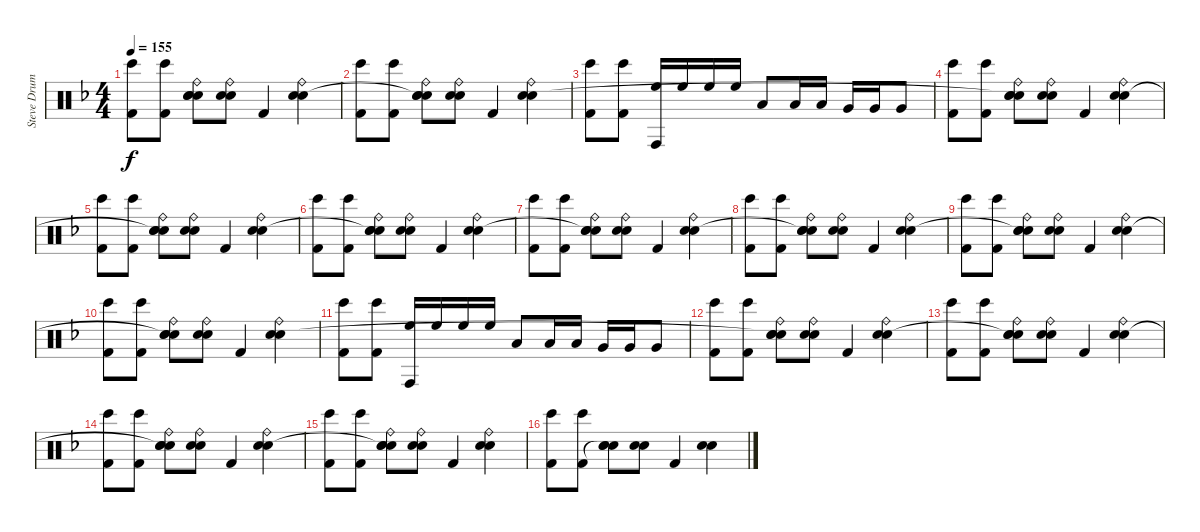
\track ("Steve Drums" "Steve Drum") {instrument percussion}
\staff {score}
\articulation defaults
\ts (4 4)
\tempo 155
\clef neutral
\ks f
("Bongo High (hit)" "Kick (hit) 2").8{dy f} ("Bongo High (hit)" "Kick (hit) 2").8 ("Ride (bell)" "Snare (hit) 2" "Snare (hit)"{t} "Electric Snare (hit)").8 ("Ride (bell)" "Snare (hit) 2" "Electric Snare (hit)").8 "Kick (hit) 2".4 ("Ride (bell)" "Snare (hit) 2" "Electric Snare (hit)").4 |
("Bongo High (hit)" "Kick (hit) 2").8 ("Bongo High (hit)" "Kick (hit) 2").8 ("Ride (bell)" "Snare (hit) 2" "Snare (hit)"{t} "Electric Snare (hit)").8 ("Ride (bell)" "Snare (hit) 2" "Electric Snare (hit)").8 "Kick (hit) 2".4 ("Ride (bell)" "Snare (hit) 2" "Electric Snare (hit)").4 |
("Bongo High (hit)" "Kick (hit) 2").8 ("Bongo High (hit)" "Kick (hit) 2").8 ("Conga high (hit)" "High Floor Tom (hit)").16 "High Floor Tom (hit)".16 "High Floor Tom (hit)".16 "High Floor Tom (hit)".16 "Low Tom (hit)".8 "Low Tom (hit)".16 "Low Tom (hit)".16 "Very Low Tom (hit)".16 "Very Low Tom (hit)".16 "Very Low Tom (hit)".8 |
("Bongo High (hit)" "Kick (hit) 2").8 ("Bongo High (hit)" "Kick (hit) 2").8 ("Ride (bell)" "Snare (hit) 2" "Snare (hit)"{t} "Electric Snare (hit)").8 ("Ride (bell)" "Snare (hit) 2" "Electric Snare (hit)").8 "Kick (hit) 2".4 ("Ride (bell)" "Snare (hit) 2" "Electric Snare (hit)").4 |
("Bongo High (hit)" "Kick (hit) 2").8 ("Bongo High (hit)" "Kick (hit) 2").8 ("Ride (bell)" "Snare (hit) 2" "Snare (hit)"{t} "Electric Snare (hit)").8 ("Ride (bell)" "Snare (hit) 2" "Electric Snare (hit)").8 "Kick (hit) 2".4 ("Ride (bell)" "Snare (hit) 2" "Electric Snare (hit)").4 |
("Bongo High (hit)" "Kick (hit) 2").8 ("Bongo High (hit)" "Kick (hit) 2").8 ("Ride (bell)" "Snare (hit) 2" "Snare (hit)"{t} "Electric Snare (hit)").8 ("Ride (bell)" "Snare (hit) 2" "Electric Snare (hit)").8 "Kick (hit) 2".4 ("Ride (bell)" "Snare (hit) 2" "Electric Snare (hit)").4 |
("Bongo High (hit)" "Kick (hit) 2").8 ("Bongo High (hit)" "Kick (hit) 2").8 ("Ride (bell)" "Snare (hit) 2" "Snare (hit)"{t} "Electric Snare (hit)").8 ("Ride (bell)" "Snare (hit) 2" "Electric Snare (hit)").8 "Kick (hit) 2".4 ("Ride (bell)" "Snare (hit) 2" "Electric Snare (hit)").4 |
("Bongo High (hit)" "Kick (hit) 2").8 ("Bongo High (hit)" "Kick (hit) 2").8 ("Ride (bell)" "Snare (hit) 2" "Snare (hit)"{t} "Electric Snare (hit)").8 ("Ride (bell)" "Snare (hit) 2" "Electric Snare (hit)").8 "Kick (hit) 2".4 ("Ride (bell)" "Snare (hit) 2" "Electric Snare (hit)").4 |
("Bongo High (hit)" "Kick (hit) 2").8 ("Bongo High (hit)" "Kick (hit) 2").8 ("Ride (bell)" "Snare (hit) 2" "Snare (hit)"{t} "Electric Snare (hit)").8 ("Ride (bell)" "Snare (hit) 2" "Electric Snare (hit)").8 "Kick (hit) 2".4 ("Ride (bell)" "Snare (hit) 2" "Electric Snare (hit)").4 |
("Bongo High (hit)" "Kick (hit) 2").8 ("Bongo High (hit)" "Kick (hit) 2").8 ("Ride (bell)" "Snare (hit) 2" "Snare (hit)"{t} "Electric Snare (hit)").8 ("Ride (bell)" "Snare (hit) 2" "Electric Snare (hit)").8 "Kick (hit) 2".4 ("Ride (bell)" "Snare (hit) 2" "Electric Snare (hit)").4 |
("Bongo High (hit)" "Kick (hit) 2").8 ("Bongo High (hit)" "Kick (hit) 2").8 ("Conga high (hit)" "High Floor Tom (hit)").16 "High Floor Tom (hit)".16 "High Floor Tom (hit)".16 "High Floor Tom (hit)".16 "Low Tom (hit)".8 "Low Tom (hit)".16 "Low Tom (hit)".16 "Very Low Tom (hit)".16 "Very Low Tom (hit)".16 "Very Low Tom (hit)".8 |
("Bongo High (hit)" "Kick (hit) 2").8 ("Bongo High (hit)" "Kick (hit) 2").8 ("Ride (bell)" "Snare (hit) 2" "Snare (hit)"{t} "Electric Snare (hit)").8 ("Ride (bell)" "Snare (hit) 2" "Electric Snare (hit)").8 "Kick (hit) 2".4 ("Ride (bell)" "Snare (hit) 2" "Electric Snare (hit)").4 |
("Bongo High (hit)" "Kick (hit) 2").8 ("Bongo High (hit)" "Kick (hit) 2").8 ("Ride (bell)" "Snare (hit) 2" "Snare (hit)"{t} "Electric Snare (hit)").8 ("Ride (bell)" "Snare (hit) 2" "Electric Snare (hit)").8 "Kick (hit) 2".4 ("Ride (bell)" "Snare (hit) 2" "Electric Snare (hit)").4 |
("Bongo High (hit)" "Kick (hit) 2").8 ("Bongo High (hit)" "Kick (hit) 2").8 ("Ride (bell)" "Snare (hit) 2" "Snare (hit)"{t} "Electric Snare (hit)").8 ("Ride (bell)" "Snare (hit) 2" "Electric Snare (hit)").8 "Kick (hit) 2".4 ("Ride (bell)" "Snare (hit) 2" "Electric Snare (hit)").4 |
("Bongo High (hit)" "Kick (hit) 2").8 ("Bongo High (hit)" "Kick (hit) 2").8 ("Ride (bell)" "Snare (hit) 2" "Snare (hit)"{t} "Electric Snare (hit)").8 ("Ride (bell)" "Snare (hit) 2" "Electric Snare (hit)").8 "Kick (hit) 2".4 ("Ride (bell)" "Snare (hit) 2" "Electric Snare (hit)").4 |
("Bongo High (hit)" "Kick (hit) 2").8 ("Bongo High (hit)" "Kick (hit) 2").8 ("Snare (hit) 2" "Snare (hit)"{t} "Electric Snare (hit)").8 ("Snare (hit) 2" "Electric Snare (hit)").8 "Kick (hit) 2".4 ("Snare (hit) 2" "Electric Snare (hit)").4
